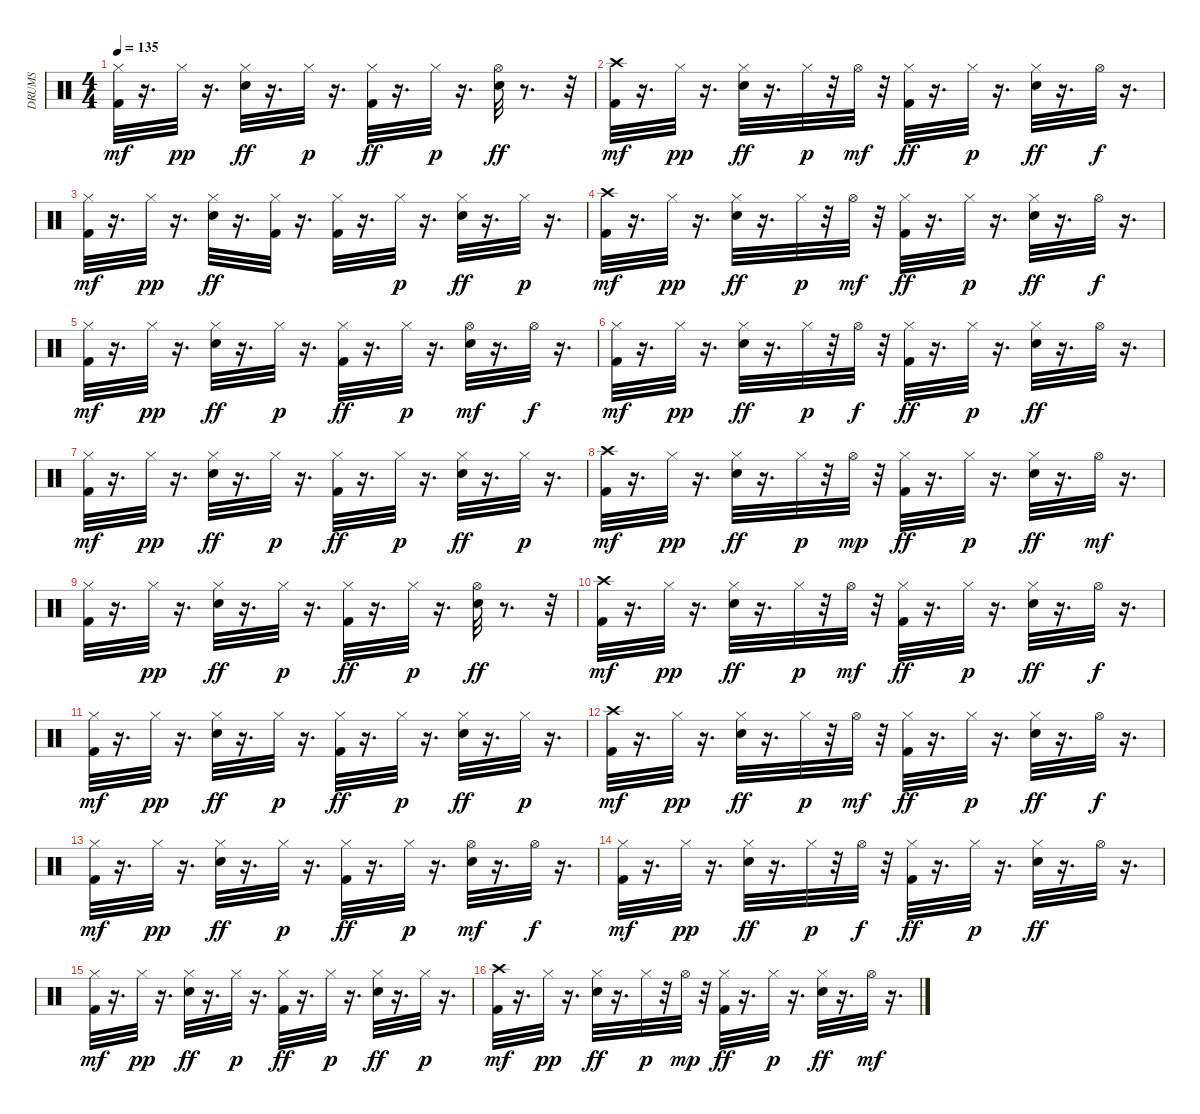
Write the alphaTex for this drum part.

\track ("DRUMS" "DRUMS") {instrument percussion}
\staff {score}
\articulation defaults
\ts (4 4)
\tempo 135
\clef neutral
\ks c
("Kick (hit) 2" "Hi-Hat (closed)").32{dy mf} r.16{d} "Hi-Hat (closed)".32{dy pp} r.16{d} ("Hi-Hat (closed)" "Electric Snare (hit)").32{dy ff} r.16{d} "Hi-Hat (closed)".32{dy p} r.16{d} ("Hi-Hat (closed)" "Kick (hit) 2").32{dy ff} r.16{d} "Hi-Hat (closed)".32{dy p} r.16{d} ("Electric Snare (hit)" "Hi-Hat (open)").32{dy ff} r.8{d} r.32 |
("Kick (hit) 2" "Crash high (hit)").32{dy mf} r.16{d} "Hi-Hat (closed)".32{dy pp} r.16{d} ("Hi-Hat (closed)" "Electric Snare (hit)").32{dy ff} r.16{d} "Hi-Hat (closed)".32{dy p} r.32 "Hi-Hat (open)".32{dy mf} r.32 ("Hi-Hat (closed)" "Kick (hit) 2").32{dy ff} r.16{d} "Hi-Hat (closed)".32{dy p} r.16{d} ("Electric Snare (hit)" "Hi-Hat (closed)").32{dy ff} r.16{d} "Hi-Hat (open)".32{dy f} r.16{d} |
("Kick (hit) 2" "Hi-Hat (closed)").32{dy mf} r.16{d} "Hi-Hat (closed)".32{dy pp} r.16{d} ("Hi-Hat (closed)" "Electric Snare (hit)").32{dy ff} r.16{d} ("Hi-Hat (closed)" "Kick (hit) 2").32 r.16{d} ("Hi-Hat (closed)" "Kick (hit) 2").32 r.16{d} "Hi-Hat (closed)".32{dy p} r.16{d} ("Electric Snare (hit)" "Hi-Hat (closed)").32{dy ff} r.16{d} "Hi-Hat (closed)".32{dy p} r.16{d} |
("Kick (hit) 2" "Crash high (hit)").32{dy mf} r.16{d} "Hi-Hat (closed)".32{dy pp} r.16{d} ("Hi-Hat (closed)" "Electric Snare (hit)").32{dy ff} r.16{d} "Hi-Hat (closed)".32{dy p} r.32 "Hi-Hat (open)".32{dy mf} r.32 ("Hi-Hat (closed)" "Kick (hit) 2").32{dy ff} r.16{d} "Hi-Hat (closed)".32{dy p} r.16{d} ("Electric Snare (hit)" "Hi-Hat (closed)").32{dy ff} r.16{d} "Hi-Hat (open)".32{dy f} r.16{d} |
("Kick (hit) 2" "Hi-Hat (closed)").32{dy mf} r.16{d} "Hi-Hat (closed)".32{dy pp} r.16{d} ("Hi-Hat (closed)" "Electric Snare (hit)").32{dy ff} r.16{d} "Hi-Hat (closed)".32{dy p} r.16{d} ("Hi-Hat (closed)" "Kick (hit) 2").32{dy ff} r.16{d} "Hi-Hat (closed)".32{dy p} r.16{d} ("Electric Snare (hit)" "Hi-Hat (open)").32{dy mf} r.16{d} "Hi-Hat (open)".32{dy f} r.16{d} |
("Kick (hit) 2" "Hi-Hat (closed)").32{dy mf} r.16{d} "Hi-Hat (closed)".32{dy pp} r.16{d} ("Hi-Hat (closed)" "Electric Snare (hit)").32{dy ff} r.16{d} "Hi-Hat (closed)".32{dy p} r.32 "Hi-Hat (open)".32{dy f} r.32 ("Hi-Hat (closed)" "Kick (hit) 2").32{dy ff} r.16{d} "Hi-Hat (closed)".32{dy p} r.16{d} ("Electric Snare (hit)" "Hi-Hat (closed)").32{dy ff} r.16{d} "Hi-Hat (open)".32 r.16{d} |
("Kick (hit) 2" "Hi-Hat (closed)").32{dy mf} r.16{d} "Hi-Hat (closed)".32{dy pp} r.16{d} ("Hi-Hat (closed)" "Electric Snare (hit)").32{dy ff} r.16{d} "Hi-Hat (closed)".32{dy p} r.16{d} ("Hi-Hat (closed)" "Kick (hit) 2").32{dy ff} r.16{d} "Hi-Hat (closed)".32{dy p} r.16{d} ("Electric Snare (hit)" "Hi-Hat (closed)").32{dy ff} r.16{d} "Hi-Hat (closed)".32{dy p} r.16{d} |
("Kick (hit) 2" "Crash high (hit)").32{dy mf} r.16{d} "Hi-Hat (closed)".32{dy pp} r.16{d} ("Hi-Hat (closed)" "Electric Snare (hit)").32{dy ff} r.16{d} "Hi-Hat (closed)".32{dy p} r.32 "Hi-Hat (open)".32{dy mp} r.32 ("Hi-Hat (closed)" "Kick (hit) 2").32{dy ff} r.16{d} "Hi-Hat (closed)".32{dy p} r.16{d} ("Electric Snare (hit)" "Hi-Hat (closed)").32{dy ff} r.16{d} "Hi-Hat (open)".32{dy mf} r.16{d} |
("Kick (hit) 2" "Hi-Hat (closed)").32 r.16{d} "Hi-Hat (closed)".32{dy pp} r.16{d} ("Hi-Hat (closed)" "Electric Snare (hit)").32{dy ff} r.16{d} "Hi-Hat (closed)".32{dy p} r.16{d} ("Hi-Hat (closed)" "Kick (hit) 2").32{dy ff} r.16{d} "Hi-Hat (closed)".32{dy p} r.16{d} ("Electric Snare (hit)" "Hi-Hat (open)").32{dy ff} r.8{d} r.32 |
("Kick (hit) 2" "Crash high (hit)").32{dy mf} r.16{d} "Hi-Hat (closed)".32{dy pp} r.16{d} ("Hi-Hat (closed)" "Electric Snare (hit)").32{dy ff} r.16{d} "Hi-Hat (closed)".32{dy p} r.32 "Hi-Hat (open)".32{dy mf} r.32 ("Hi-Hat (closed)" "Kick (hit) 2").32{dy ff} r.16{d} "Hi-Hat (closed)".32{dy p} r.16{d} ("Electric Snare (hit)" "Hi-Hat (closed)").32{dy ff} r.16{d} "Hi-Hat (open)".32{dy f} r.16{d} |
("Kick (hit) 2" "Hi-Hat (closed)").32{dy mf} r.16{d} "Hi-Hat (closed)".32{dy pp} r.16{d} ("Hi-Hat (closed)" "Electric Snare (hit)").32{dy ff} r.16{d} "Hi-Hat (closed)".32{dy p} r.16{d} ("Hi-Hat (closed)" "Kick (hit) 2").32{dy ff} r.16{d} "Hi-Hat (closed)".32{dy p} r.16{d} ("Electric Snare (hit)" "Hi-Hat (closed)").32{dy ff} r.16{d} "Hi-Hat (closed)".32{dy p} r.16{d} |
("Kick (hit) 2" "Crash high (hit)").32{dy mf} r.16{d} "Hi-Hat (closed)".32{dy pp} r.16{d} ("Hi-Hat (closed)" "Electric Snare (hit)").32{dy ff} r.16{d} "Hi-Hat (closed)".32{dy p} r.32 "Hi-Hat (open)".32{dy mf} r.32 ("Hi-Hat (closed)" "Kick (hit) 2").32{dy ff} r.16{d} "Hi-Hat (closed)".32{dy p} r.16{d} ("Electric Snare (hit)" "Hi-Hat (closed)").32{dy ff} r.16{d} "Hi-Hat (open)".32{dy f} r.16{d} |
("Kick (hit) 2" "Hi-Hat (closed)").32{dy mf} r.16{d} "Hi-Hat (closed)".32{dy pp} r.16{d} ("Hi-Hat (closed)" "Electric Snare (hit)").32{dy ff} r.16{d} "Hi-Hat (closed)".32{dy p} r.16{d} ("Hi-Hat (closed)" "Kick (hit) 2").32{dy ff} r.16{d} "Hi-Hat (closed)".32{dy p} r.16{d} ("Electric Snare (hit)" "Hi-Hat (open)").32{dy mf} r.16{d} "Hi-Hat (open)".32{dy f} r.16{d} |
("Kick (hit) 2" "Hi-Hat (closed)").32{dy mf} r.16{d} "Hi-Hat (closed)".32{dy pp} r.16{d} ("Hi-Hat (closed)" "Electric Snare (hit)").32{dy ff} r.16{d} "Hi-Hat (closed)".32{dy p} r.32 "Hi-Hat (open)".32{dy f} r.32 ("Hi-Hat (closed)" "Kick (hit) 2").32{dy ff} r.16{d} "Hi-Hat (closed)".32{dy p} r.16{d} ("Electric Snare (hit)" "Hi-Hat (closed)").32{dy ff} r.16{d} "Hi-Hat (open)".32 r.16{d} |
("Kick (hit) 2" "Hi-Hat (closed)").32{dy mf} r.16{d} "Hi-Hat (closed)".32{dy pp} r.16{d} ("Hi-Hat (closed)" "Electric Snare (hit)").32{dy ff} r.16{d} "Hi-Hat (closed)".32{dy p} r.16{d} ("Hi-Hat (closed)" "Kick (hit) 2").32{dy ff} r.16{d} "Hi-Hat (closed)".32{dy p} r.16{d} ("Electric Snare (hit)" "Hi-Hat (closed)").32{dy ff} r.16{d} "Hi-Hat (closed)".32{dy p} r.16{d} |
("Kick (hit) 2" "Crash high (hit)").32{dy mf} r.16{d} "Hi-Hat (closed)".32{dy pp} r.16{d} ("Hi-Hat (closed)" "Electric Snare (hit)").32{dy ff} r.16{d} "Hi-Hat (closed)".32{dy p} r.32 "Hi-Hat (open)".32{dy mp} r.32 ("Hi-Hat (closed)" "Kick (hit) 2").32{dy ff} r.16{d} "Hi-Hat (closed)".32{dy p} r.16{d} ("Electric Snare (hit)" "Hi-Hat (closed)").32{dy ff} r.16{d} "Hi-Hat (open)".32{dy mf} r.16{d}
